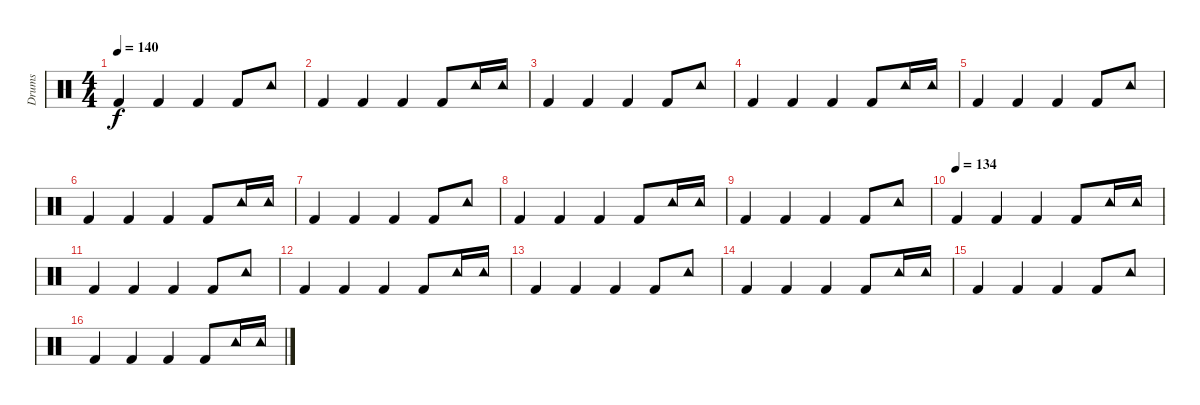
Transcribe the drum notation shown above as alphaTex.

\track ("Drums" "Drums") {instrument percussion}
\staff {score}
\articulation defaults
\ts (4 4)
\tempo 140
\clef neutral
\ks c "Kick (hit) 2".4{dy f} "Kick (hit) 2".4 "Kick (hit) 2".4 "Kick (hit) 2".8 "Tambourine (hit)".8
|
"Kick (hit) 2".4 "Kick (hit) 2".4 "Kick (hit) 2".4 "Kick (hit) 2".8 "Tambourine (hit)".16 "Tambourine (hit)".16 |
"Kick (hit) 2".4 "Kick (hit) 2".4 "Kick (hit) 2".4 "Kick (hit) 2".8 "Tambourine (hit)".8 |
"Kick (hit) 2".4 "Kick (hit) 2".4 "Kick (hit) 2".4 "Kick (hit) 2".8 "Tambourine (hit)".16 "Tambourine (hit)".16 |
"Kick (hit) 2".4 "Kick (hit) 2".4 "Kick (hit) 2".4 "Kick (hit) 2".8 "Tambourine (hit)".8 |
"Kick (hit) 2".4 "Kick (hit) 2".4 "Kick (hit) 2".4 "Kick (hit) 2".8 "Tambourine (hit)".16 "Tambourine (hit)".16 |
"Kick (hit) 2".4 "Kick (hit) 2".4 "Kick (hit) 2".4 "Kick (hit) 2".8 "Tambourine (hit)".8 |
"Kick (hit) 2".4 "Kick (hit) 2".4 "Kick (hit) 2".4 "Kick (hit) 2".8 "Tambourine (hit)".16 "Tambourine (hit)".16 |
"Kick (hit) 2".4 "Kick (hit) 2".4 "Kick (hit) 2".4 "Kick (hit) 2".8 "Tambourine (hit)".8 |
\tempo (134)
"Kick (hit) 2".4 "Kick (hit) 2".4 "Kick (hit) 2".4 "Kick (hit) 2".8 "Tambourine (hit)".16 "Tambourine (hit)".16 |
"Kick (hit) 2".4 "Kick (hit) 2".4 "Kick (hit) 2".4 "Kick (hit) 2".8 "Tambourine (hit)".8 |
"Kick (hit) 2".4 "Kick (hit) 2".4 "Kick (hit) 2".4 "Kick (hit) 2".8 "Tambourine (hit)".16 "Tambourine (hit)".16 |
"Kick (hit) 2".4 "Kick (hit) 2".4 "Kick (hit) 2".4 "Kick (hit) 2".8 "Tambourine (hit)".8 |
"Kick (hit) 2".4 "Kick (hit) 2".4 "Kick (hit) 2".4 "Kick (hit) 2".8 "Tambourine (hit)".16 "Tambourine (hit)".16 |
"Kick (hit) 2".4 "Kick (hit) 2".4 "Kick (hit) 2".4 "Kick (hit) 2".8 "Tambourine (hit)".8 |
"Kick (hit) 2".4 "Kick (hit) 2".4 "Kick (hit) 2".4 "Kick (hit) 2".8 "Tambourine (hit)".16 "Tambourine (hit)".16
